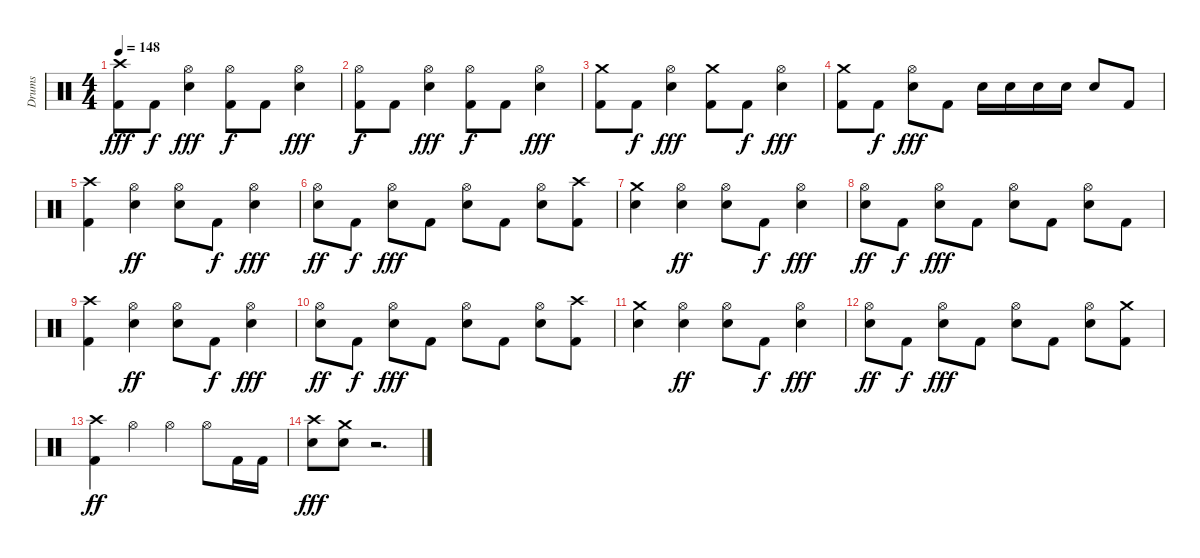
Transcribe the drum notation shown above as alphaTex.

\track ("Drums" "Drums") {instrument percussion}
\staff {score}
\articulation defaults
\ts (4 4)
\tempo 148
\clef neutral
\ks c
("Crash high (hit)" "Kick (hit) 2").8{dy fff} "Kick (hit) 2".8{dy f} ("Hi-Hat (open)" "Electric Snare (hit)").4{dy fff} ("Hi-Hat (open)" "Kick (hit) 2").8{dy f} "Kick (hit) 2".8 ("Hi-Hat (open)" "Electric Snare (hit)").4{dy fff} |
("Hi-Hat (open)" "Kick (hit) 2").8{dy f} "Kick (hit) 2".8 ("Hi-Hat (open)" "Electric Snare (hit)").4{dy fff} ("Hi-Hat (open)" "Kick (hit) 2").8{dy f} "Kick (hit) 2".8 ("Hi-Hat (open)" "Electric Snare (hit)").4{dy fff} |
("Crash medium (hit)" "Kick (hit) 2").8 "Kick (hit) 2".8{dy f} ("Hi-Hat (open)" "Electric Snare (hit)").4{dy fff} ("Crash medium (hit)" "Kick (hit) 2").8 "Kick (hit) 2".8{dy f} ("Hi-Hat (open)" "Electric Snare (hit)").4{dy fff} |
("Crash medium (hit)" "Kick (hit) 2").8 "Kick (hit) 2".8{dy f} ("Hi-Hat (open)" "Electric Snare (hit)").8{dy fff} "Kick (hit) 2".8 "Electric Snare (hit)".16 "Electric Snare (hit)".16 "Electric Snare (hit)".16 "Electric Snare (hit)".16 "Electric Snare (hit)".8 "Kick (hit) 2".8 |
("Crash high (hit)" "Kick (hit) 2").4 ("Hi-Hat (open)" "Electric Snare (hit)").4{dy ff} ("Hi-Hat (open)" "Electric Snare (hit)").8 "Kick (hit) 2".8{dy f} ("Hi-Hat (open)" "Electric Snare (hit)").4{dy fff} |
("Hi-Hat (open)" "Electric Snare (hit)").8{dy ff} "Kick (hit) 2".8{dy f} ("Hi-Hat (open)" "Electric Snare (hit)").8{dy fff} "Kick (hit) 2".8 ("Hi-Hat (open)" "Electric Snare (hit)").8 "Kick (hit) 2".8 ("Hi-Hat (open)" "Electric Snare (hit)").8 ("Crash high (hit)" "Kick (hit) 2").8 |
("Crash medium (hit)" "Electric Snare (hit)").4 ("Hi-Hat (open)" "Electric Snare (hit)").4{dy ff} ("Hi-Hat (open)" "Electric Snare (hit)").8 "Kick (hit) 2".8{dy f} ("Hi-Hat (open)" "Electric Snare (hit)").4{dy fff} |
("Hi-Hat (open)" "Electric Snare (hit)").8{dy ff} "Kick (hit) 2".8{dy f} ("Hi-Hat (open)" "Electric Snare (hit)").8{dy fff} "Kick (hit) 2".8 ("Hi-Hat (open)" "Electric Snare (hit)").8 "Kick (hit) 2".8 ("Hi-Hat (open)" "Electric Snare (hit)").8 "Kick (hit) 2".8 |
("Crash high (hit)" "Kick (hit) 2").4 ("Hi-Hat (open)" "Electric Snare (hit)").4{dy ff} ("Hi-Hat (open)" "Electric Snare (hit)").8 "Kick (hit) 2".8{dy f} ("Hi-Hat (open)" "Electric Snare (hit)").4{dy fff} |
("Hi-Hat (open)" "Electric Snare (hit)").8{dy ff} "Kick (hit) 2".8{dy f} ("Hi-Hat (open)" "Electric Snare (hit)").8{dy fff} "Kick (hit) 2".8 ("Hi-Hat (open)" "Electric Snare (hit)").8 "Kick (hit) 2".8 ("Hi-Hat (open)" "Electric Snare (hit)").8 ("Crash high (hit)" "Kick (hit) 2").8 |
("Crash medium (hit)" "Electric Snare (hit)").4 ("Hi-Hat (open)" "Electric Snare (hit)").4{dy ff} ("Hi-Hat (open)" "Electric Snare (hit)").8 "Kick (hit) 2".8{dy f} ("Hi-Hat (open)" "Electric Snare (hit)").4{dy fff} |
("Hi-Hat (open)" "Electric Snare (hit)").8{dy ff} "Kick (hit) 2".8{dy f} ("Hi-Hat (open)" "Electric Snare (hit)").8{dy fff} "Kick (hit) 2".8 ("Hi-Hat (open)" "Electric Snare (hit)").8 "Kick (hit) 2".8 ("Hi-Hat (open)" "Electric Snare (hit)").8 ("Crash medium (hit)" "Kick (hit) 2").8 |
("Crash high (hit)" "Kick (hit) 2").4{dy ff} "Hi-Hat (open)".4 "Hi-Hat (open)".4 "Hi-Hat (open)".8 "Kick (hit) 2".16 "Kick (hit) 2".16 |
("Crash high (hit)" "Electric Snare (hit)").8{dy fff} ("Crash medium (hit)" "Electric Snare (hit)").8 r.2{d}
